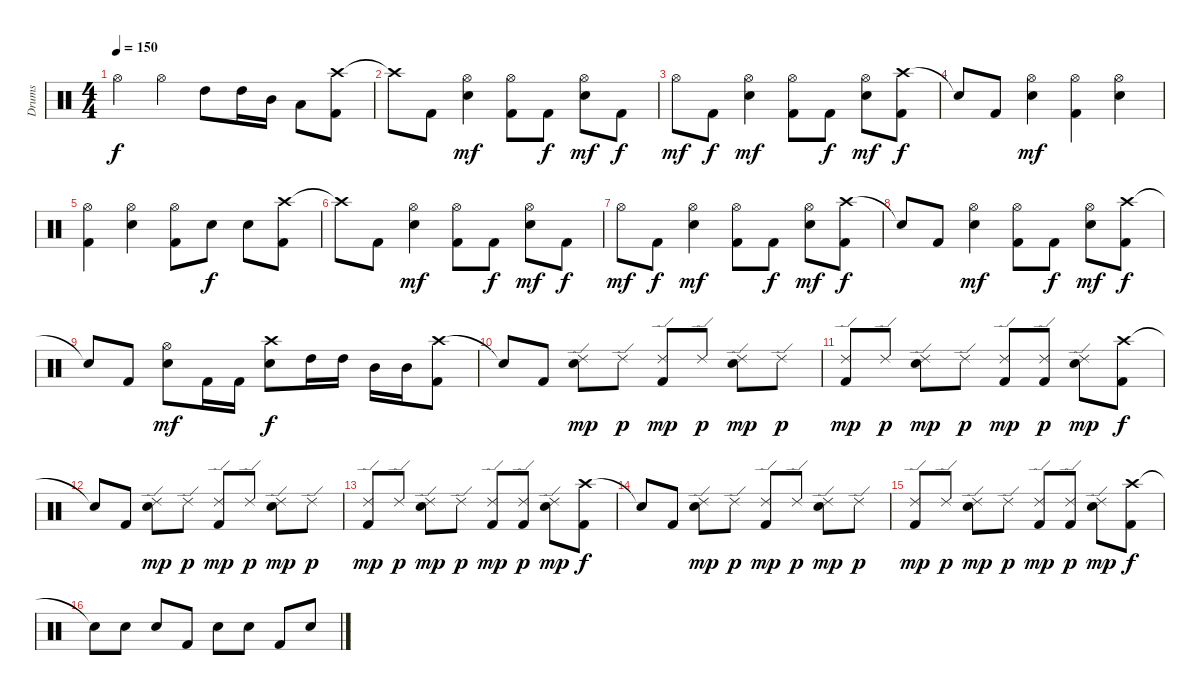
\track ("Drums" "Drums") {instrument percussion}
\staff {score}
\articulation defaults
\ts (4 4)
\tempo 150
\clef neutral
\ks c "Hi-Hat (open)".4{dy f} "Hi-Hat (open)".4 "High Tom (hit)".8 "High Tom (hit)".16 "Mid Tom (hit)".16 "Low Tom (hit)".8
("Crash high (hit)" "Kick (hit) 2").8 |
"Crash high (hit)"{t}.8 "Kick (hit) 2".8 ("Hi-Hat (open)" "Electric Snare (hit)").4{dy mf} ("Hi-Hat (open)" "Kick (hit) 2").8 "Kick (hit) 2".8{dy f} ("Hi-Hat (open)" "Electric Snare (hit)").8{dy mf} "Kick (hit) 2".8{dy f} |
"Hi-Hat (open)".8{dy mf} "Kick (hit) 2".8{dy f} ("Hi-Hat (open)" "Electric Snare (hit)").4{dy mf} ("Hi-Hat (open)" "Kick (hit) 2").8 "Kick (hit) 2".8{dy f} ("Hi-Hat (open)" "Electric Snare (hit)").8{dy mf} ("Crash high (hit)" "Kick (hit) 2").8{dy f} |
"Snare (hit)"{t}.8 "Kick (hit) 2".8 ("Hi-Hat (open)" "Electric Snare (hit)").4{dy mf} ("Hi-Hat (open)" "Kick (hit) 2").4 ("Hi-Hat (open)" "Electric Snare (hit)").4 |
("Hi-Hat (open)" "Kick (hit) 2").4 ("Hi-Hat (open)" "Electric Snare (hit)").4 ("Hi-Hat (open)" "Kick (hit) 2").8 "Electric Snare (hit)".8{dy f} "Electric Snare (hit)".8 ("Crash high (hit)" "Kick (hit) 2").8 |
"Crash high (hit)"{t}.8 "Kick (hit) 2".8 ("Hi-Hat (open)" "Electric Snare (hit)").4{dy mf} ("Hi-Hat (open)" "Kick (hit) 2").8 "Kick (hit) 2".8{dy f} ("Hi-Hat (open)" "Electric Snare (hit)").8{dy mf} "Kick (hit) 2".8{dy f} |
"Hi-Hat (open)".8{dy mf} "Kick (hit) 2".8{dy f} ("Hi-Hat (open)" "Electric Snare (hit)").4{dy mf} ("Hi-Hat (open)" "Kick (hit) 2").8 "Kick (hit) 2".8{dy f} ("Hi-Hat (open)" "Electric Snare (hit)").8{dy mf} ("Crash high (hit)" "Kick (hit) 2").8{dy f} |
"Snare (hit)"{t}.8 "Kick (hit) 2".8 ("Hi-Hat (open)" "Electric Snare (hit)").4{dy mf} ("Hi-Hat (open)" "Kick (hit) 2").8 "Kick (hit) 2".8{dy f} ("Hi-Hat (open)" "Electric Snare (hit)").8{dy mf} ("Crash high (hit)" "Kick (hit) 2").8{dy f} |
"Snare (hit)"{t}.8 "Kick (hit) 2".8 ("Hi-Hat (open)" "Electric Snare (hit)").8{dy mf} "Kick (hit) 2".16 "Kick (hit) 2".16 ("Crash high (hit)" "Electric Snare (hit)").8{dy f} "High Tom (hit)".16 "High Tom (hit)".16 "Mid Tom (hit)".16 "Mid Tom (hit)".16 ("Crash high (hit)" "Kick (hit) 2").8 |
"Snare (hit)"{t}.8 "Kick (hit) 2".8 ("Ride (edge) 2" "Electric Snare (hit)").8{dy mp} "Ride (edge) 2".8{dy p} ("Ride (edge) 2" "Kick (hit) 2").8{dy mp} "Ride (edge) 2".8{dy p} ("Ride (edge) 2" "Electric Snare (hit)").8{dy mp} "Ride (edge) 2".8{dy p} |
("Ride (edge) 2" "Kick (hit) 2").8{dy mp} "Ride (edge) 2".8{dy p} ("Ride (edge) 2" "Electric Snare (hit)").8{dy mp} "Ride (edge) 2".8{dy p} ("Ride (edge) 2" "Kick (hit) 2").8{dy mp} ("Ride (edge) 2" "Kick (hit) 2").8{dy p} ("Ride (edge) 2" "Electric Snare (hit)").8{dy mp} ("Crash high (hit)" "Kick (hit) 2").8{dy f} |
"Snare (hit)"{t}.8 "Kick (hit) 2".8 ("Ride (edge) 2" "Electric Snare (hit)").8{dy mp} "Ride (edge) 2".8{dy p} ("Ride (edge) 2" "Kick (hit) 2").8{dy mp} "Ride (edge) 2".8{dy p} ("Ride (edge) 2" "Electric Snare (hit)").8{dy mp} "Ride (edge) 2".8{dy p} |
("Ride (edge) 2" "Kick (hit) 2").8{dy mp} "Ride (edge) 2".8{dy p} ("Ride (edge) 2" "Electric Snare (hit)").8{dy mp} "Ride (edge) 2".8{dy p} ("Ride (edge) 2" "Kick (hit) 2").8{dy mp} ("Ride (edge) 2" "Kick (hit) 2").8{dy p} ("Ride (edge) 2" "Electric Snare (hit)").8{dy mp} ("Crash high (hit)" "Kick (hit) 2").8{dy f} |
"Snare (hit)"{t}.8 "Kick (hit) 2".8 ("Ride (edge) 2" "Electric Snare (hit)").8{dy mp} "Ride (edge) 2".8{dy p} ("Ride (edge) 2" "Kick (hit) 2").8{dy mp} "Ride (edge) 2".8{dy p} ("Ride (edge) 2" "Electric Snare (hit)").8{dy mp} "Ride (edge) 2".8{dy p} |
("Ride (edge) 2" "Kick (hit) 2").8{dy mp} "Ride (edge) 2".8{dy p} ("Ride (edge) 2" "Electric Snare (hit)").8{dy mp} "Ride (edge) 2".8{dy p} ("Ride (edge) 2" "Kick (hit) 2").8{dy mp} ("Ride (edge) 2" "Kick (hit) 2").8{dy p} ("Ride (edge) 2" "Electric Snare (hit)").8{dy mp} ("Crash high (hit)" "Kick (hit) 2").8{dy f} |
"Snare (hit)"{t}.8 "Electric Snare (hit)".8 "Electric Snare (hit)".8 "Kick (hit) 2".8 "Electric Snare (hit)".8 "Electric Snare (hit)".8 "Kick (hit) 2".8 "Electric Snare (hit)".8
